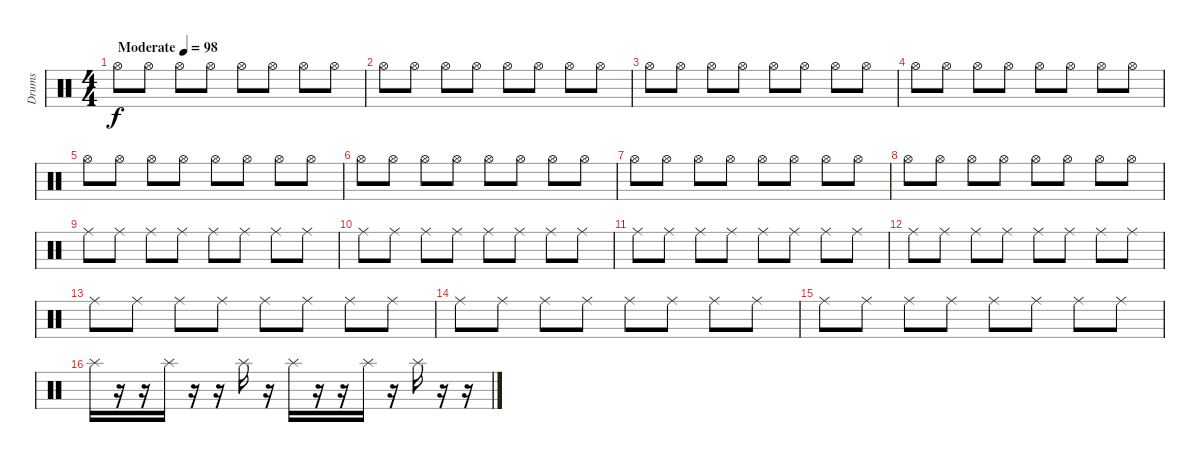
\track ("Drums" "Drums") {instrument percussion}
\staff {score}
\articulation defaults
\ts (4 4)
\tempo (98 "Moderate")
\clef neutral
\ks c "Hi-Hat (open)".8{dy f} "Hi-Hat (open)".8 "Hi-Hat (open)".8 "Hi-Hat (open)".8 "Hi-Hat (open)".8 "Hi-Hat (open)".8 "Hi-Hat (open)".8 "Hi-Hat (open)".8
|
"Hi-Hat (open)".8 "Hi-Hat (open)".8 "Hi-Hat (open)".8 "Hi-Hat (open)".8 "Hi-Hat (open)".8 "Hi-Hat (open)".8 "Hi-Hat (open)".8 "Hi-Hat (open)".8 |
"Hi-Hat (open)".8 "Hi-Hat (open)".8 "Hi-Hat (open)".8 "Hi-Hat (open)".8 "Hi-Hat (open)".8 "Hi-Hat (open)".8 "Hi-Hat (open)".8 "Hi-Hat (open)".8 |
"Hi-Hat (open)".8 "Hi-Hat (open)".8 "Hi-Hat (open)".8 "Hi-Hat (open)".8 "Hi-Hat (open)".8 "Hi-Hat (open)".8 "Hi-Hat (open)".8 "Hi-Hat (open)".8 |
"Hi-Hat (open)".8 "Hi-Hat (open)".8 "Hi-Hat (open)".8 "Hi-Hat (open)".8 "Hi-Hat (open)".8 "Hi-Hat (open)".8 "Hi-Hat (open)".8 "Hi-Hat (open)".8 |
"Hi-Hat (open)".8 "Hi-Hat (open)".8 "Hi-Hat (open)".8 "Hi-Hat (open)".8 "Hi-Hat (open)".8 "Hi-Hat (open)".8 "Hi-Hat (open)".8 "Hi-Hat (open)".8 |
"Hi-Hat (open)".8 "Hi-Hat (open)".8 "Hi-Hat (open)".8 "Hi-Hat (open)".8 "Hi-Hat (open)".8 "Hi-Hat (open)".8 "Hi-Hat (open)".8 "Hi-Hat (open)".8 |
"Hi-Hat (open)".8 "Hi-Hat (open)".8 "Hi-Hat (open)".8 "Hi-Hat (open)".8 "Hi-Hat (open)".8 "Hi-Hat (open)".8 "Hi-Hat (open)".8 "Hi-Hat (open)".8 |
"Ride (middle)".8 "Ride (middle)".8 "Ride (middle)".8 "Ride (middle)".8 "Ride (middle)".8 "Ride (middle)".8 "Ride (middle)".8 "Ride (middle)".8 |
"Ride (middle)".8 "Ride (middle)".8 "Ride (middle)".8 "Ride (middle)".8 "Ride (middle)".8 "Ride (middle)".8 "Ride (middle)".8 "Ride (middle)".8 |
"Ride (middle)".8 "Ride (middle)".8 "Ride (middle)".8 "Ride (middle)".8 "Ride (middle)".8 "Ride (middle)".8 "Ride (middle)".8 "Ride (middle)".8 |
"Ride (middle)".8 "Ride (middle)".8 "Ride (middle)".8 "Ride (middle)".8 "Ride (middle)".8 "Ride (middle)".8 "Ride (middle)".8 "Ride (middle)".8 |
"Ride (middle)".8 "Ride (middle)".8 "Ride (middle)".8 "Ride (middle)".8 "Ride (middle)".8 "Ride (middle)".8 "Ride (middle)".8 "Ride (middle)".8 |
"Ride (middle)".8 "Ride (middle)".8 "Ride (middle)".8 "Ride (middle)".8 "Ride (middle)".8 "Ride (middle)".8 "Ride (middle)".8 "Ride (middle)".8 |
"Ride (middle)".8 "Ride (middle)".8 "Ride (middle)".8 "Ride (middle)".8 "Ride (middle)".8 "Ride (middle)".8 "Ride (middle)".8 "Ride (middle)".8 |
"Splash (hit)".16 r.16 r.16 "Splash (hit)".16 r.16 r.16 "Splash (hit)".16 r.16 "Splash (hit)".16 r.16 r.16 "Splash (hit)".16 r.16 "Splash (hit)".16 r.16 r.16
